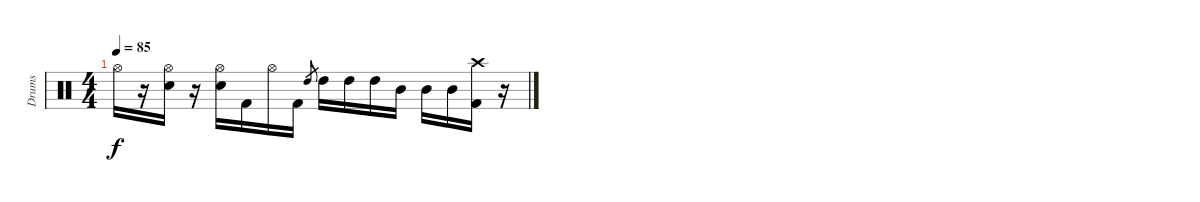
\track ("Drums" "Drums") {instrument percussion}
\staff {score}
\articulation defaults
\ts (4 4)
\tempo 85
\clef neutral
\ks c "Hi-Hat (open)".16{dy f}
r.16 ("Hi-Hat (open)" "Electric Snare (hit)").16 r.16 ("Hi-Hat (open)" "Electric Snare (hit)").16 "Kick (hit) 2".16 "Hi-Hat (open)".16 "Kick (hit) 2".16 "High Tom (hit)".8{gr} "High Tom (hit)".16 "High Tom (hit)".16 "High Tom (hit)".16 "Mid Tom (hit)".16 "Mid Tom (hit)".16 "Mid Tom (hit)".16 ("Crash high (hit)" "Kick (hit) 2").16 r.16
